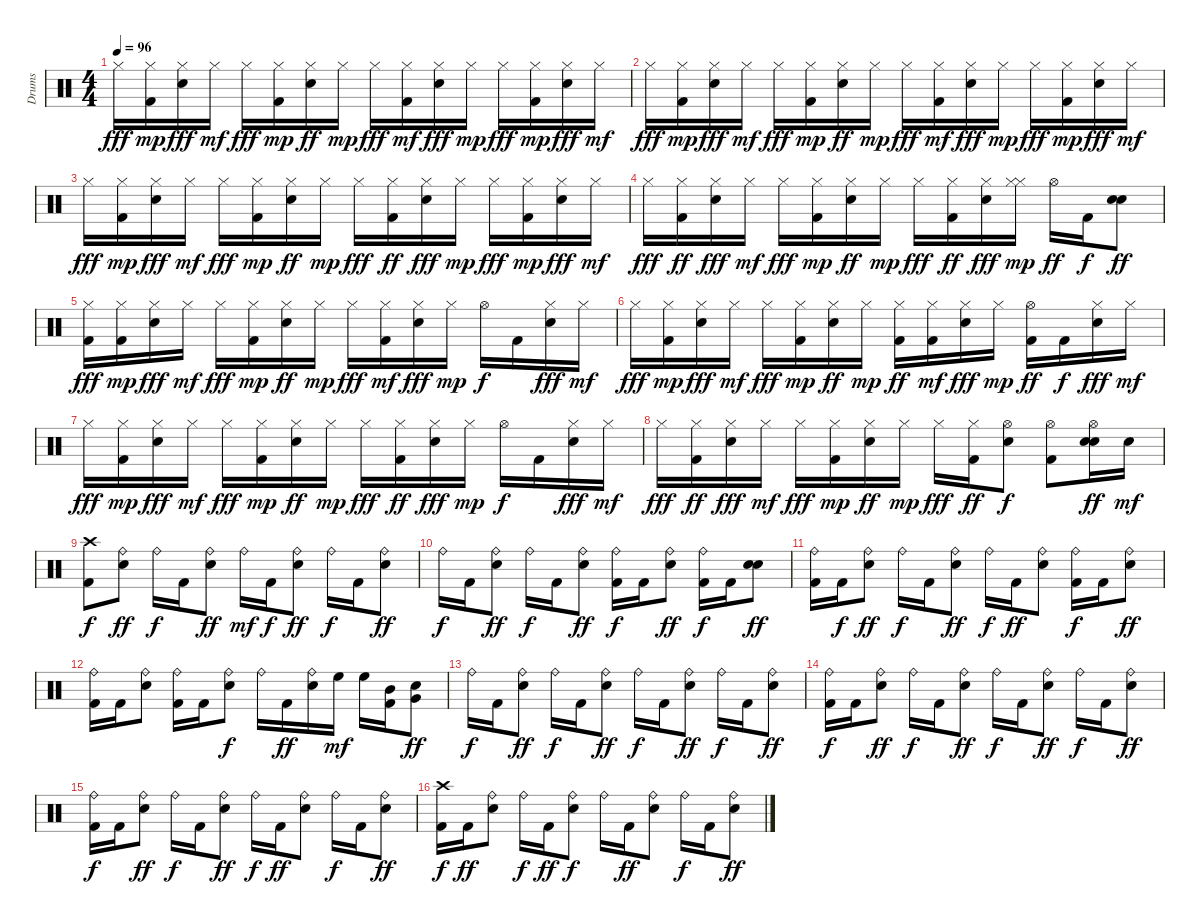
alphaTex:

\track ("Drums" "Drums") {instrument percussion}
\staff {score}
\articulation defaults
\ts (4 4)
\tempo 96
\clef neutral
\ks c "Hi-Hat (closed)".16{dy fff}
("Kick (hit) 2" "Hi-Hat (closed)").16{dy mp} ("Electric Snare (hit)" "Hi-Hat (closed)").16{dy fff} "Hi-Hat (closed)".16{dy mf} "Hi-Hat (closed)".16{dy fff} ("Kick (hit) 2" "Hi-Hat (closed)").16{dy mp} ("Electric Snare (hit)" "Hi-Hat (closed)").16{dy ff} "Hi-Hat (closed)".16{dy mp} "Hi-Hat (closed)".16{dy fff} ("Hi-Hat (closed)" "Kick (hit) 2").16{dy mf} ("Electric Snare (hit)" "Hi-Hat (closed)").16{dy fff} "Hi-Hat (closed)".16{dy mp} "Hi-Hat (closed)".16{dy fff} ("Kick (hit) 2" "Hi-Hat (closed)").16{dy mp} ("Electric Snare (hit)" "Hi-Hat (closed)").16{dy fff} "Hi-Hat (closed)".16{dy mf} |
"Hi-Hat (closed)".16{dy fff} ("Kick (hit) 2" "Hi-Hat (closed)").16{dy mp} ("Electric Snare (hit)" "Hi-Hat (closed)").16{dy fff} "Hi-Hat (closed)".16{dy mf} "Hi-Hat (closed)".16{dy fff} ("Kick (hit) 2" "Hi-Hat (closed)").16{dy mp} ("Electric Snare (hit)" "Hi-Hat (closed)").16{dy ff} "Hi-Hat (closed)".16{dy mp} "Hi-Hat (closed)".16{dy fff} ("Kick (hit) 2" "Hi-Hat (closed)").16{dy mf} ("Electric Snare (hit)" "Hi-Hat (closed)").16{dy fff} "Hi-Hat (closed)".16{dy mp} "Hi-Hat (closed)".16{dy fff} ("Kick (hit) 2" "Hi-Hat (closed)").16{dy mp} ("Electric Snare (hit)" "Hi-Hat (closed)").16{dy fff} "Hi-Hat (closed)".16{dy mf} |
"Hi-Hat (closed)".16{dy fff} ("Hi-Hat (closed)" "Kick (hit) 2").16{dy mp} ("Electric Snare (hit)" "Hi-Hat (closed)").16{dy fff} "Hi-Hat (closed)".16{dy mf} "Hi-Hat (closed)".16{dy fff} ("Kick (hit) 2" "Hi-Hat (closed)").16{dy mp} ("Electric Snare (hit)" "Hi-Hat (closed)").16{dy ff} "Hi-Hat (closed)".16{dy mp} "Hi-Hat (closed)".16{dy fff} ("Hi-Hat (closed)" "Kick (hit) 2").16{dy ff} ("Electric Snare (hit)" "Hi-Hat (closed)").16{dy fff} "Hi-Hat (closed)".16{dy mp} "Hi-Hat (closed)".16{dy fff} ("Kick (hit) 2" "Hi-Hat (closed)").16{dy mp} ("Electric Snare (hit)" "Hi-Hat (closed)").16{dy fff} "Hi-Hat (closed)".16{dy mf} |
"Hi-Hat (closed)".16{dy fff} ("Hi-Hat (closed)" "Kick (hit) 2").16{dy ff} ("Electric Snare (hit)" "Hi-Hat (closed)").16{dy fff} "Hi-Hat (closed)".16{dy mf} "Hi-Hat (closed)".16{dy fff} ("Kick (hit) 2" "Hi-Hat (closed)").16{dy mp} ("Electric Snare (hit)" "Hi-Hat (closed)").16{dy ff} "Hi-Hat (closed)".16{dy mp} "Hi-Hat (closed)".16{dy fff} ("Hi-Hat (closed)" "Kick (hit) 2").16{dy ff} ("Electric Snare (hit)" "Hi-Hat (closed)").16{dy fff} ("Hi-Hat (closed)" "Hi-Hat (closed)").16{dy mp} "Hi-Hat (open)".16{dy ff} "Kick (hit) 2".16{dy f} ("Electric Snare (hit)" "Electric Snare (hit)").8{dy ff} |
("Kick (hit) 2" "Hi-Hat (closed)").16{dy fff} ("Kick (hit) 2" "Hi-Hat (closed)").16{dy mp} ("Electric Snare (hit)" "Hi-Hat (closed)").16{dy fff} "Hi-Hat (closed)".16{dy mf} "Hi-Hat (closed)".16{dy fff} ("Kick (hit) 2" "Hi-Hat (closed)").16{dy mp} ("Electric Snare (hit)" "Hi-Hat (closed)").16{dy ff} "Hi-Hat (closed)".16{dy mp} "Hi-Hat (closed)".16{dy fff} ("Hi-Hat (closed)" "Kick (hit) 2").16{dy mf} ("Electric Snare (hit)" "Hi-Hat (closed)").16{dy fff} "Hi-Hat (closed)".16{dy mp} "Hi-Hat (open)".16{dy f} "Kick (hit) 2".16 ("Electric Snare (hit)" "Hi-Hat (closed)").16{dy fff} "Hi-Hat (closed)".16{dy mf} |
"Hi-Hat (closed)".16{dy fff} ("Kick (hit) 2" "Hi-Hat (closed)").16{dy mp} ("Electric Snare (hit)" "Hi-Hat (closed)").16{dy fff} "Hi-Hat (closed)".16{dy mf} "Hi-Hat (closed)".16{dy fff} ("Kick (hit) 2" "Hi-Hat (closed)").16{dy mp} ("Electric Snare (hit)" "Hi-Hat (closed)").16{dy ff} "Hi-Hat (closed)".16{dy mp} ("Hi-Hat (closed)" "Kick (hit) 2").16{dy ff} ("Kick (hit) 2" "Hi-Hat (closed)").16{dy mf} ("Electric Snare (hit)" "Hi-Hat (closed)").16{dy fff} "Hi-Hat (closed)".16{dy mp} ("Hi-Hat (open)" "Kick (hit) 2").16{dy ff} "Kick (hit) 2".16{dy f} ("Electric Snare (hit)" "Hi-Hat (closed)").16{dy fff} "Hi-Hat (closed)".16{dy mf} |
"Hi-Hat (closed)".16{dy fff} ("Hi-Hat (closed)" "Kick (hit) 2").16{dy mp} ("Electric Snare (hit)" "Hi-Hat (closed)").16{dy fff} "Hi-Hat (closed)".16{dy mf} "Hi-Hat (closed)".16{dy fff} ("Kick (hit) 2" "Hi-Hat (closed)").16{dy mp} ("Electric Snare (hit)" "Hi-Hat (closed)").16{dy ff} "Hi-Hat (closed)".16{dy mp} "Hi-Hat (closed)".16{dy fff} ("Hi-Hat (closed)" "Kick (hit) 2").16{dy ff} ("Electric Snare (hit)" "Hi-Hat (closed)").16{dy fff} "Hi-Hat (closed)".16{dy mp} "Hi-Hat (open)".16{dy f} "Kick (hit) 2".16 ("Electric Snare (hit)" "Hi-Hat (closed)").16{dy fff} "Hi-Hat (closed)".16{dy mf} |
"Hi-Hat (closed)".16{dy fff} ("Hi-Hat (closed)" "Kick (hit) 2").16{dy ff} ("Electric Snare (hit)" "Hi-Hat (closed)").16{dy fff} "Hi-Hat (closed)".16{dy mf} "Hi-Hat (closed)".16{dy fff} ("Kick (hit) 2" "Hi-Hat (closed)").16{dy mp} ("Electric Snare (hit)" "Hi-Hat (closed)").16{dy ff} "Hi-Hat (closed)".16{dy mp} "Hi-Hat (closed)".16{dy fff} ("Hi-Hat (closed)" "Kick (hit) 2").16{dy ff} ("Electric Snare (hit)" "Hi-Hat (open)").8{dy f} ("Hi-Hat (open)" "Kick (hit) 2").8 ("Electric Snare (hit)" "Electric Snare (hit)" "Hi-Hat (open)").16{dy ff} "Electric Snare (hit)".16{dy mf} |
("Kick (hit) 2" "Crash high (hit)").8{dy f} ("Electric Snare (hit)" "Ride (bell)").8{dy ff} "Ride (bell)".16{dy f} "Kick (hit) 2".16 ("Electric Snare (hit)" "Ride (bell)").8{dy ff} "Ride (bell)".16{dy mf} "Kick (hit) 2".16{dy f} ("Electric Snare (hit)" "Ride (bell)").8{dy ff} "Ride (bell)".16{dy f} "Kick (hit) 2".16 ("Electric Snare (hit)" "Ride (bell)").8{dy ff} |
"Ride (bell)".16{dy f} "Kick (hit) 2".16 ("Electric Snare (hit)" "Ride (bell)").8{dy ff} "Ride (bell)".16{dy f} "Kick (hit) 2".16 ("Electric Snare (hit)" "Ride (bell)").8{dy ff} ("Ride (bell)" "Kick (hit) 2").16{dy f} "Kick (hit) 2".16 ("Electric Snare (hit)" "Ride (bell)").8{dy ff} ("Ride (bell)" "Kick (hit) 2").16{dy f} "Kick (hit) 2".16 ("Electric Snare (hit)" "Electric Snare (hit)").8{dy ff} |
("Ride (bell)" "Kick (hit) 2").16 "Kick (hit) 2".16{dy f} ("Electric Snare (hit)" "Ride (bell)").8{dy ff} "Ride (bell)".16{dy f} "Kick (hit) 2".16 ("Electric Snare (hit)" "Ride (bell)").8{dy ff} "Ride (bell)".16{dy f} "Kick (hit) 2".16{dy ff} ("Electric Snare (hit)" "Ride (bell)").8 ("Ride (bell)" "Kick (hit) 2").16{dy f} "Kick (hit) 2".16 ("Electric Snare (hit)" "Ride (bell)").8{dy ff} |
("Ride (bell)" "Kick (hit) 2").16 "Kick (hit) 2".16 ("Electric Snare (hit)" "Ride (bell)").8 ("Ride (bell)" "Kick (hit) 2").16 "Kick (hit) 2".16 ("Electric Snare (hit)" "Ride (bell)").8{dy f} "Ride (bell)".16 "Kick (hit) 2".16{dy ff} ("Electric Snare (hit)" "Ride (bell)").16 "High Floor Tom (hit)".16{dy mf} "High Floor Tom (hit)".16 ("Kick (hit) 2" "Mid Tom (hit)").16 ("Electric Snare (hit)" "Very Low Tom (hit)").8{dy ff} |
"Ride (bell)".16{dy f} "Kick (hit) 2".16 ("Electric Snare (hit)" "Ride (bell)").8{dy ff} "Ride (bell)".16{dy f} "Kick (hit) 2".16 ("Electric Snare (hit)" "Ride (bell)").8{dy ff} "Ride (bell)".16{dy f} "Kick (hit) 2".16 ("Electric Snare (hit)" "Ride (bell)").8{dy ff} "Ride (bell)".16{dy f} "Kick (hit) 2".16 ("Electric Snare (hit)" "Ride (bell)").8{dy ff} |
("Ride (bell)" "Kick (hit) 2").16{dy f} "Kick (hit) 2".16 ("Electric Snare (hit)" "Ride (bell)").8{dy ff} "Ride (bell)".16{dy f} "Kick (hit) 2".16 ("Electric Snare (hit)" "Ride (bell)").8{dy ff} "Ride (bell)".16{dy f} "Kick (hit) 2".16 ("Electric Snare (hit)" "Ride (bell)").8{dy ff} "Ride (bell)".16{dy f} "Kick (hit) 2".16 ("Electric Snare (hit)" "Ride (bell)").8{dy ff} |
("Ride (bell)" "Kick (hit) 2").16{dy f} "Kick (hit) 2".16 ("Electric Snare (hit)" "Ride (bell)").8{dy ff} "Ride (bell)".16{dy f} "Kick (hit) 2".16 ("Electric Snare (hit)" "Ride (bell)").8{dy ff} "Ride (bell)".16{dy f} "Kick (hit) 2".16{dy ff} ("Electric Snare (hit)" "Ride (bell)").8 "Ride (bell)".16{dy f} "Kick (hit) 2".16 ("Electric Snare (hit)" "Ride (bell)").8{dy ff} |
("Kick (hit) 2" "Crash high (hit)").16{dy f} "Kick (hit) 2".16{dy ff} ("Electric Snare (hit)" "Ride (bell)").8 "Ride (bell)".16{dy f} "Kick (hit) 2".16{dy ff} ("Electric Snare (hit)" "Ride (bell)").8{dy f} "Ride (bell)".16 "Kick (hit) 2".16{dy ff} ("Electric Snare (hit)" "Ride (bell)").8 "Ride (bell)".16{dy f} "Kick (hit) 2".16 ("Electric Snare (hit)" "Ride (bell)").8{dy ff}
